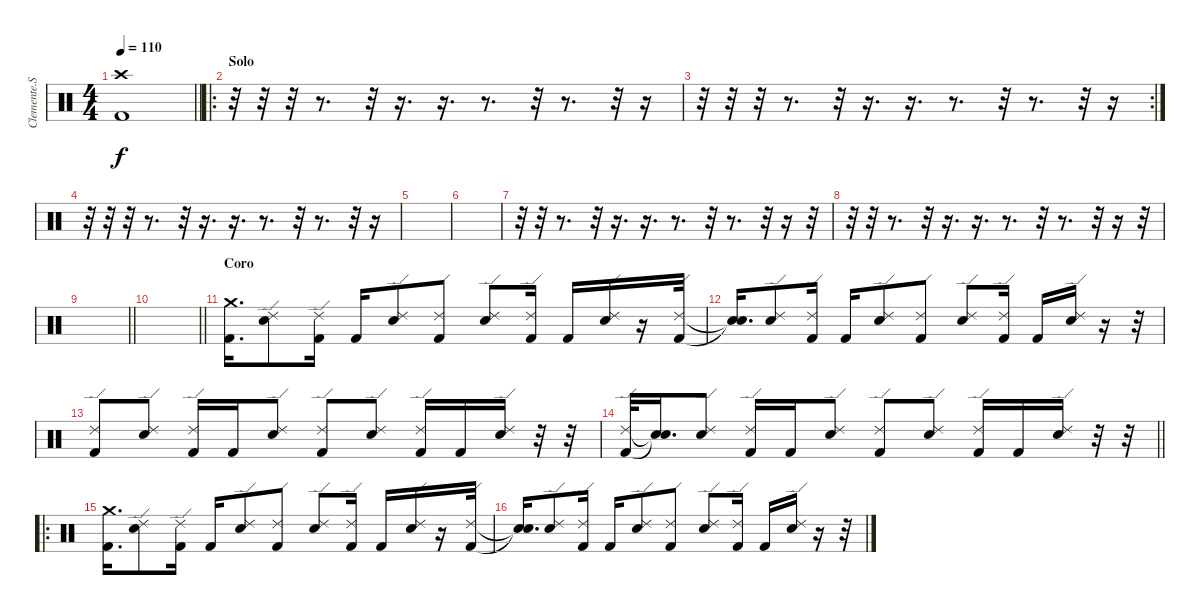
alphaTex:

\track ("Clemente.S" "Clemente.S") {instrument percussion}
\staff {score}
\articulation defaults
\ts (4 4)
\tempo 110
\clef neutral
\barLineRight lightlight
\ks c
("Crash high (hit)" "Kick (hit) 2").1{dy f} |
\ro
\section ("" "Solo")
r.32 r.32 r.32 r.8{d} r.32 r.16{d} r.16{d} r.8{d} r.32 r.8{d} r.32 r.16 |
\rc 2
r.32 r.32 r.32 r.8{d} r.32 r.16{d} r.16{d} r.8{d} r.32 r.8{d} r.32 r.16 |
r.32 r.32 r.32 r.8{d} r.32 r.16{d} r.16{d} r.8{d} r.32 r.8{d} r.32 r.16 |
|
|
r.32 r.32 r.8{d} r.32 r.16{d} r.16{d} r.8{d} r.32 r.8{d} r.32 r.16 r.32 |
r.32 r.32 r.8{d} r.32 r.16{d} r.16{d} r.8{d} r.32 r.8{d} r.32 r.16 r.32 |
\barLineRight lightlight
|
\barLineRight lightlight
|
\section ("" "Coro")
("Crash medium (hit)" "Kick (hit) 2").16{d} ("Ride (edge) 2" "Electric Snare (hit)").8 ("Ride (edge) 2" "Kick (hit) 2").16 "Kick (hit) 2".16 ("Ride (edge) 2" "Electric Snare (hit)").8 ("Ride (edge) 2" "Kick (hit) 2").8 ("Ride (edge) 2" "Electric Snare (hit)").8 ("Ride (edge) 2" "Kick (hit) 2").16 "Kick (hit) 2".16 ("Ride (edge) 2" "Electric Snare (hit)").16 r.16 ("Ride (edge) 2" "Kick (hit) 2").32 |
("Snare (hit)"{t} "Snare (hit)"{t}).16{d} ("Ride (edge) 2" "Electric Snare (hit)").8 ("Ride (edge) 2" "Kick (hit) 2").16 "Kick (hit) 2".16 ("Ride (edge) 2" "Electric Snare (hit)").8 ("Ride (edge) 2" "Kick (hit) 2").8 ("Ride (edge) 2" "Electric Snare (hit)").8 ("Ride (edge) 2" "Kick (hit) 2").16 "Kick (hit) 2".16 ("Ride (edge) 2" "Electric Snare (hit)").16 r.16 r.32 |
("Ride (edge) 2" "Kick (hit) 2").8 ("Ride (edge) 2" "Electric Snare (hit)").8 ("Ride (edge) 2" "Kick (hit) 2").16 "Kick (hit) 2".16 ("Ride (edge) 2" "Electric Snare (hit)").8 ("Ride (edge) 2" "Kick (hit) 2").8 ("Ride (edge) 2" "Electric Snare (hit)").8 ("Ride (edge) 2" "Kick (hit) 2").16 "Kick (hit) 2".16 ("Ride (edge) 2" "Electric Snare (hit)").16 r.32 r.32 |
\barLineRight lightlight
("Ride (edge) 2" "Kick (hit) 2").32 ("Snare (hit)"{t} "Snare (hit)"{t}).16{d} ("Ride (edge) 2" "Electric Snare (hit)").8 ("Ride (edge) 2" "Kick (hit) 2").16 "Kick (hit) 2".16 ("Ride (edge) 2" "Electric Snare (hit)").8 ("Ride (edge) 2" "Kick (hit) 2").8 ("Ride (edge) 2" "Electric Snare (hit)").8 ("Ride (edge) 2" "Kick (hit) 2").16 "Kick (hit) 2".16 ("Ride (edge) 2" "Electric Snare (hit)").16 r.32 r.32 |
\ro
("Crash medium (hit)" "Kick (hit) 2").16{d} ("Ride (edge) 2" "Electric Snare (hit)").8 ("Ride (edge) 2" "Kick (hit) 2").16 "Kick (hit) 2".16 ("Ride (edge) 2" "Electric Snare (hit)").8 ("Ride (edge) 2" "Kick (hit) 2").8 ("Ride (edge) 2" "Electric Snare (hit)").8 ("Ride (edge) 2" "Kick (hit) 2").16 "Kick (hit) 2".16 ("Ride (edge) 2" "Electric Snare (hit)").16 r.16 ("Ride (edge) 2" "Kick (hit) 2").32 |
("Snare (hit)"{t} "Snare (hit)"{t}).16{d} ("Ride (edge) 2" "Electric Snare (hit)").8 ("Ride (edge) 2" "Kick (hit) 2").16 "Kick (hit) 2".16 ("Ride (edge) 2" "Electric Snare (hit)").8 ("Ride (edge) 2" "Kick (hit) 2").8 ("Ride (edge) 2" "Electric Snare (hit)").8 ("Ride (edge) 2" "Kick (hit) 2").16 "Kick (hit) 2".16 ("Ride (edge) 2" "Electric Snare (hit)").16 r.16 r.32
